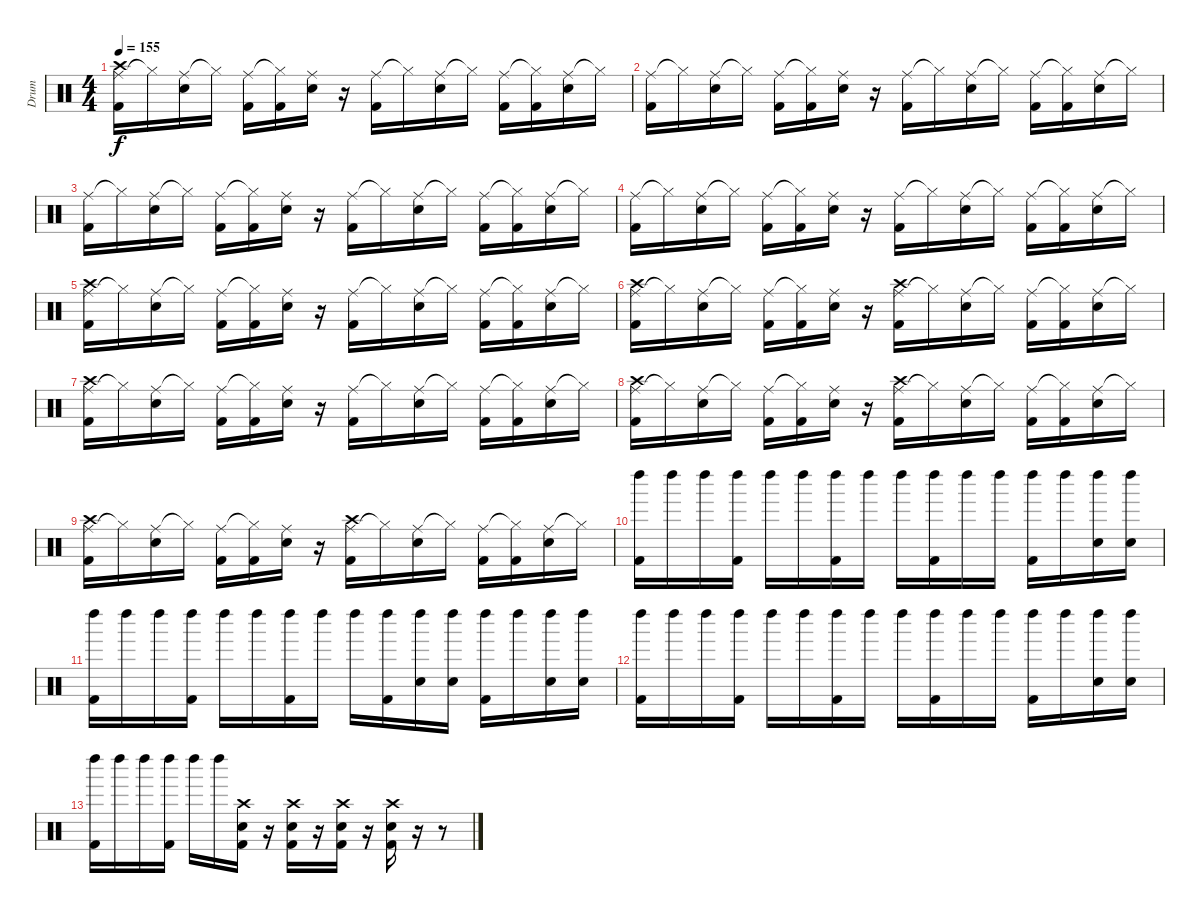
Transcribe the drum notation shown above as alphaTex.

\track ("Drum" "Drum") {instrument percussion}
\staff {score}
\articulation defaults
\ts (4 4)
\tempo 155
\clef neutral
\ks c
("Ride (middle)" "Crash high (hit)" "Kick (hit) 2").16{dy f} "Hi-Hat (closed)"{t}.16 ("Ride (middle)" "Snare (hit) 2").16 "Hi-Hat (closed)"{t}.16 ("Ride (middle)" "Kick (hit) 2").16 ("Hi-Hat (closed)"{t} "Kick (hit) 2").16 ("Ride (middle)" "Snare (hit) 2").16 r.16 ("Ride (middle)" "Kick (hit) 2").16 "Hi-Hat (closed)"{t}.16 ("Ride (middle)" "Snare (hit) 2").16 "Hi-Hat (closed)"{t}.16 ("Ride (middle)" "Kick (hit) 2").16 ("Hi-Hat (closed)"{t} "Kick (hit) 2").16 ("Ride (middle)" "Snare (hit) 2").16 "Hi-Hat (closed)"{t}.16 |
("Ride (middle)" "Kick (hit) 2").16 "Hi-Hat (closed)"{t}.16 ("Ride (middle)" "Snare (hit) 2").16 "Hi-Hat (closed)"{t}.16 ("Ride (middle)" "Kick (hit) 2").16 ("Hi-Hat (closed)"{t} "Kick (hit) 2").16 ("Ride (middle)" "Snare (hit) 2").16 r.16 ("Ride (middle)" "Kick (hit) 2").16 "Hi-Hat (closed)"{t}.16 ("Ride (middle)" "Snare (hit) 2").16 "Hi-Hat (closed)"{t}.16 ("Ride (middle)" "Kick (hit) 2").16 ("Hi-Hat (closed)"{t} "Kick (hit) 2").16 ("Ride (middle)" "Snare (hit) 2").16 "Hi-Hat (closed)"{t}.16 |
("Ride (middle)" "Kick (hit) 2").16 "Hi-Hat (closed)"{t}.16 ("Ride (middle)" "Snare (hit) 2").16 "Hi-Hat (closed)"{t}.16 ("Ride (middle)" "Kick (hit) 2").16 ("Hi-Hat (closed)"{t} "Kick (hit) 2").16 ("Ride (middle)" "Snare (hit) 2").16 r.16 ("Ride (middle)" "Kick (hit) 2").16 "Hi-Hat (closed)"{t}.16 ("Ride (middle)" "Snare (hit) 2").16 "Hi-Hat (closed)"{t}.16 ("Ride (middle)" "Kick (hit) 2").16 ("Hi-Hat (closed)"{t} "Kick (hit) 2").16 ("Ride (middle)" "Snare (hit) 2").16 "Hi-Hat (closed)"{t}.16 |
("Ride (middle)" "Kick (hit) 2").16 "Hi-Hat (closed)"{t}.16 ("Ride (middle)" "Snare (hit) 2").16 "Hi-Hat (closed)"{t}.16 ("Ride (middle)" "Kick (hit) 2").16 ("Hi-Hat (closed)"{t} "Kick (hit) 2").16 ("Ride (middle)" "Snare (hit) 2").16 r.16 ("Ride (middle)" "Kick (hit) 2").16 "Hi-Hat (closed)"{t}.16 ("Ride (middle)" "Snare (hit) 2").16 "Hi-Hat (closed)"{t}.16 ("Ride (middle)" "Kick (hit) 2").16 ("Hi-Hat (closed)"{t} "Kick (hit) 2").16 ("Ride (middle)" "Snare (hit) 2").16 "Hi-Hat (closed)"{t}.16 |
("Ride (middle)" "Crash high (hit)" "Kick (hit) 2").16 "Hi-Hat (closed)"{t}.16 ("Ride (middle)" "Snare (hit) 2").16 "Hi-Hat (closed)"{t}.16 ("Ride (middle)" "Kick (hit) 2").16 ("Hi-Hat (closed)"{t} "Kick (hit) 2").16 ("Ride (middle)" "Snare (hit) 2").16 r.16 ("Ride (middle)" "Kick (hit) 2").16 "Hi-Hat (closed)"{t}.16 ("Ride (middle)" "Snare (hit) 2").16 "Hi-Hat (closed)"{t}.16 ("Ride (middle)" "Kick (hit) 2").16 ("Hi-Hat (closed)"{t} "Kick (hit) 2").16 ("Ride (middle)" "Snare (hit) 2").16 "Hi-Hat (closed)"{t}.16 |
("Ride (middle)" "Crash high (hit)" "Kick (hit) 2").16 "Hi-Hat (closed)"{t}.16 ("Ride (middle)" "Snare (hit) 2").16 "Hi-Hat (closed)"{t}.16 ("Ride (middle)" "Kick (hit) 2").16 ("Hi-Hat (closed)"{t} "Kick (hit) 2").16 ("Ride (middle)" "Snare (hit) 2").16 r.16 ("Ride (middle)" "Crash high (hit)" "Kick (hit) 2").16 "Hi-Hat (closed)"{t}.16 ("Ride (middle)" "Snare (hit) 2").16 "Hi-Hat (closed)"{t}.16 ("Ride (middle)" "Kick (hit) 2").16 ("Hi-Hat (closed)"{t} "Kick (hit) 2").16 ("Ride (middle)" "Snare (hit) 2").16 "Hi-Hat (closed)"{t}.16 |
("Ride (middle)" "Crash high (hit)" "Kick (hit) 2").16 "Hi-Hat (closed)"{t}.16 ("Ride (middle)" "Snare (hit) 2").16 "Hi-Hat (closed)"{t}.16 ("Ride (middle)" "Kick (hit) 2").16 ("Hi-Hat (closed)"{t} "Kick (hit) 2").16 ("Ride (middle)" "Snare (hit) 2").16 r.16 ("Ride (middle)" "Kick (hit) 2").16 "Hi-Hat (closed)"{t}.16 ("Ride (middle)" "Snare (hit) 2").16 "Hi-Hat (closed)"{t}.16 ("Ride (middle)" "Kick (hit) 2").16 ("Hi-Hat (closed)"{t} "Kick (hit) 2").16 ("Ride (middle)" "Snare (hit) 2").16 "Hi-Hat (closed)"{t}.16 |
("Ride (middle)" "Crash high (hit)" "Kick (hit) 2").16 "Hi-Hat (closed)"{t}.16 ("Ride (middle)" "Snare (hit) 2").16 "Hi-Hat (closed)"{t}.16 ("Ride (middle)" "Kick (hit) 2").16 ("Hi-Hat (closed)"{t} "Kick (hit) 2").16 ("Ride (middle)" "Snare (hit) 2").16 r.16 ("Ride (middle)" "Crash high (hit)" "Kick (hit) 2").16 "Hi-Hat (closed)"{t}.16 ("Ride (middle)" "Snare (hit) 2").16 "Hi-Hat (closed)"{t}.16 ("Ride (middle)" "Kick (hit) 2").16 ("Hi-Hat (closed)"{t} "Kick (hit) 2").16 ("Ride (middle)" "Snare (hit) 2").16 "Hi-Hat (closed)"{t}.16 |
("Ride (middle)" "Crash high (hit)" "Kick (hit) 2").16 "Hi-Hat (closed)"{t}.16 ("Ride (middle)" "Snare (hit) 2").16 "Hi-Hat (closed)"{t}.16 ("Ride (middle)" "Kick (hit) 2").16 ("Hi-Hat (closed)"{t} "Kick (hit) 2").16 ("Ride (middle)" "Snare (hit) 2").16 r.16 ("Ride (middle)" "Crash high (hit)" "Kick (hit) 2").16 "Hi-Hat (closed)"{t}.16 ("Ride (middle)" "Snare (hit) 2").16 "Hi-Hat (closed)"{t}.16 ("Ride (middle)" "Kick (hit) 2").16 ("Hi-Hat (closed)"{t} "Kick (hit) 2").16 ("Ride (middle)" "Snare (hit) 2").16 "Hi-Hat (closed)"{t}.16 |
("Left Maraca (hit)" "Kick (hit) 2").16 "Left Maraca (hit)".16 "Left Maraca (hit)".16 ("Left Maraca (hit)" "Kick (hit) 2").16 "Left Maraca (hit)".16 "Left Maraca (hit)".16 ("Left Maraca (hit)" "Kick (hit) 2").16 "Left Maraca (hit)".16 "Left Maraca (hit)".16 ("Left Maraca (hit)" "Kick (hit) 2").16 "Left Maraca (hit)".16 "Left Maraca (hit)".16 ("Left Maraca (hit)" "Kick (hit) 2").16 "Left Maraca (hit)".16 ("Left Maraca (hit)" "Snare (hit) 2").16 ("Left Maraca (hit)" "Snare (hit) 2").16 |
("Left Maraca (hit)" "Kick (hit) 2").16 "Left Maraca (hit)".16 "Left Maraca (hit)".16 ("Left Maraca (hit)" "Kick (hit) 2").16 "Left Maraca (hit)".16 "Left Maraca (hit)".16 ("Left Maraca (hit)" "Kick (hit) 2").16 "Left Maraca (hit)".16 "Left Maraca (hit)".16 ("Left Maraca (hit)" "Kick (hit) 2").16 ("Left Maraca (hit)" "Snare (hit) 2").16 ("Left Maraca (hit)" "Snare (hit) 2").16 ("Left Maraca (hit)" "Kick (hit) 2").16 "Left Maraca (hit)".16 ("Left Maraca (hit)" "Snare (hit) 2").16 ("Left Maraca (hit)" "Snare (hit) 2").16 |
("Left Maraca (hit)" "Kick (hit) 2").16 "Left Maraca (hit)".16 "Left Maraca (hit)".16 ("Left Maraca (hit)" "Kick (hit) 2").16 "Left Maraca (hit)".16 "Left Maraca (hit)".16 ("Left Maraca (hit)" "Kick (hit) 2").16 "Left Maraca (hit)".16 "Left Maraca (hit)".16 ("Left Maraca (hit)" "Kick (hit) 2").16 "Left Maraca (hit)".16 "Left Maraca (hit)".16 ("Left Maraca (hit)" "Kick (hit) 2").16 "Left Maraca (hit)".16 ("Left Maraca (hit)" "Snare (hit) 2").16 ("Left Maraca (hit)" "Snare (hit) 2").16 |
("Left Maraca (hit)" "Kick (hit) 2").16 "Left Maraca (hit)".16 "Left Maraca (hit)".16 ("Left Maraca (hit)" "Kick (hit) 2").16 "Left Maraca (hit)".16 "Left Maraca (hit)".16 ("Crash high (hit)" "Snare (hit) 2" "Kick (hit) 2").16 r.16 ("Crash high (hit)" "Snare (hit) 2" "Kick (hit) 2").16 r.16 ("Crash high (hit)" "Snare (hit) 2" "Kick (hit) 2").16 r.16 ("Crash high (hit)" "Snare (hit) 2" "Kick (hit) 2").16 r.16 r.8
